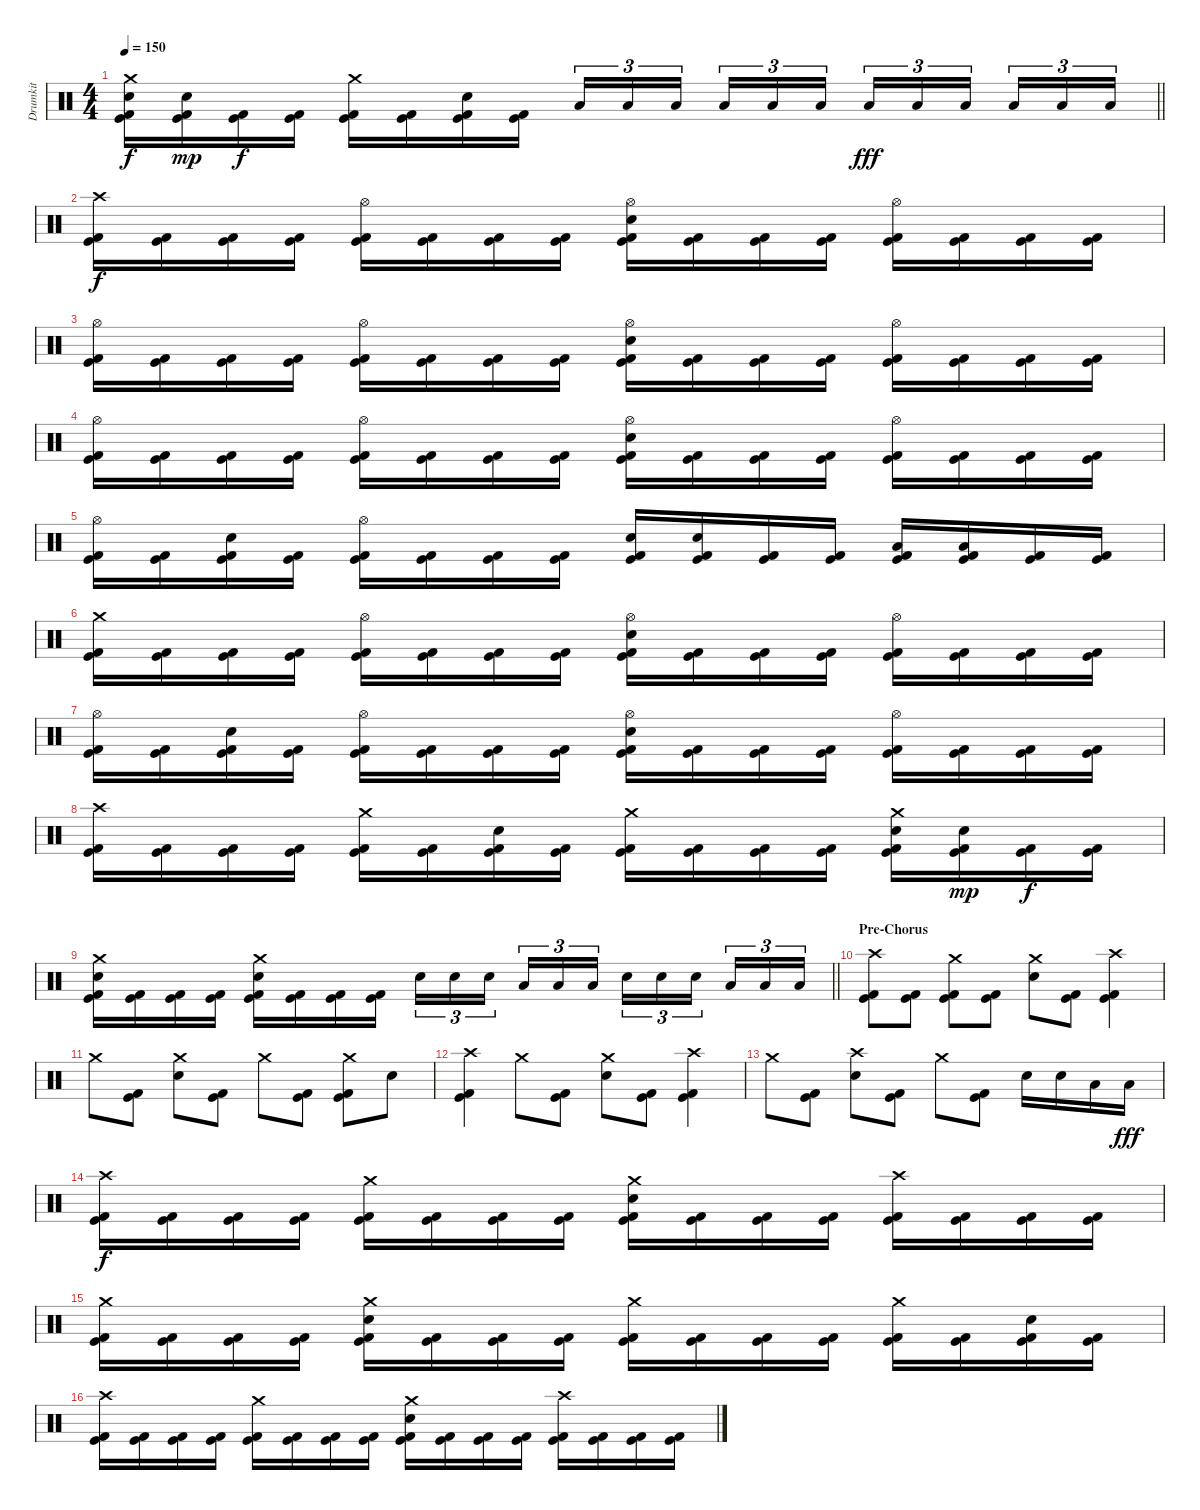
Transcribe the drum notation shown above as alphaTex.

\track ("Drumkit" "Drumkit") {instrument percussion}
\staff {score}
\articulation defaults
\ts (4 4)
\tempo 150
\clef neutral
\barLineRight lightlight
\ks c
("Crash medium (hit)" "Electric Snare (hit)" "Kick (hit)" "Kick (hit) 2").16{dy f} ("Electric Snare (hit)" "Kick (hit)" "Kick (hit) 2").16{dy mp} ("Kick (hit)" "Kick (hit) 2").16{dy f} ("Kick (hit)" "Kick (hit) 2").16 ("Crash medium (hit)" "Kick (hit)" "Kick (hit) 2").16 ("Kick (hit)" "Kick (hit) 2").16 ("Electric Snare (hit)" "Kick (hit)" "Kick (hit) 2").16 ("Kick (hit)" "Kick (hit) 2").16 "Low Tom (hit)".16{tu (3 2)} "Low Tom (hit)".16{tu (3 2)} "Low Tom (hit)".16{tu (3 2) beam splitsecondary} "Low Tom (hit)".16{tu (3 2)} "Low Tom (hit)".16{tu (3 2)} "Low Tom (hit)".16{tu (3 2)} "Low Floor Tom (hit)".16{tu (3 2) dy fff} "Low Floor Tom (hit)".16{tu (3 2)} "Low Floor Tom (hit)".16{tu (3 2) beam splitsecondary} "Low Floor Tom (hit)".16{tu (3 2)} "Low Floor Tom (hit)".16{tu (3 2)} "Low Floor Tom (hit)".16{tu (3 2)} |
("Crash high (hit)" "Kick (hit)" "Kick (hit) 2").16{dy f} ("Kick (hit)" "Kick (hit) 2").16 ("Kick (hit)" "Kick (hit) 2").16 ("Kick (hit)" "Kick (hit) 2").16 ("Hi-Hat (open)" "Kick (hit)" "Kick (hit) 2").16 ("Kick (hit)" "Kick (hit) 2").16 ("Kick (hit)" "Kick (hit) 2").16 ("Kick (hit)" "Kick (hit) 2").16 ("Hi-Hat (open)" "Electric Snare (hit)" "Kick (hit)" "Kick (hit) 2").16 ("Kick (hit)" "Kick (hit) 2").16 ("Kick (hit)" "Kick (hit) 2").16 ("Kick (hit)" "Kick (hit) 2").16 ("Hi-Hat (open)" "Kick (hit)" "Kick (hit) 2").16 ("Kick (hit)" "Kick (hit) 2").16 ("Kick (hit)" "Kick (hit) 2").16 ("Kick (hit)" "Kick (hit) 2").16 |
("Hi-Hat (open)" "Kick (hit)" "Kick (hit) 2").16 ("Kick (hit)" "Kick (hit) 2").16 ("Kick (hit)" "Kick (hit) 2").16 ("Kick (hit)" "Kick (hit) 2").16 ("Hi-Hat (open)" "Kick (hit)" "Kick (hit) 2").16 ("Kick (hit)" "Kick (hit) 2").16 ("Kick (hit)" "Kick (hit) 2").16 ("Kick (hit)" "Kick (hit) 2").16 ("Hi-Hat (open)" "Electric Snare (hit)" "Kick (hit)" "Kick (hit) 2").16 ("Kick (hit)" "Kick (hit) 2").16 ("Kick (hit)" "Kick (hit) 2").16 ("Kick (hit)" "Kick (hit) 2").16 ("Hi-Hat (open)" "Kick (hit)" "Kick (hit) 2").16 ("Kick (hit)" "Kick (hit) 2").16 ("Kick (hit)" "Kick (hit) 2").16 ("Kick (hit)" "Kick (hit) 2").16 |
("Hi-Hat (open)" "Kick (hit)" "Kick (hit) 2").16 ("Kick (hit)" "Kick (hit) 2").16 ("Kick (hit)" "Kick (hit) 2").16 ("Kick (hit)" "Kick (hit) 2").16 ("Hi-Hat (open)" "Kick (hit)" "Kick (hit) 2").16 ("Kick (hit)" "Kick (hit) 2").16 ("Kick (hit)" "Kick (hit) 2").16 ("Kick (hit)" "Kick (hit) 2").16 ("Hi-Hat (open)" "Electric Snare (hit)" "Kick (hit)" "Kick (hit) 2").16 ("Kick (hit)" "Kick (hit) 2").16 ("Kick (hit)" "Kick (hit) 2").16 ("Kick (hit)" "Kick (hit) 2").16 ("Hi-Hat (open)" "Kick (hit)" "Kick (hit) 2").16 ("Kick (hit)" "Kick (hit) 2").16 ("Kick (hit)" "Kick (hit) 2").16 ("Kick (hit)" "Kick (hit) 2").16 |
("Hi-Hat (open)" "Kick (hit)" "Kick (hit) 2").16 ("Kick (hit)" "Kick (hit) 2").16 ("Electric Snare (hit)" "Kick (hit)" "Kick (hit) 2").16 ("Kick (hit)" "Kick (hit) 2").16 ("Hi-Hat (open)" "Kick (hit)" "Kick (hit) 2").16 ("Kick (hit)" "Kick (hit) 2").16 ("Kick (hit)" "Kick (hit) 2").16 ("Kick (hit)" "Kick (hit) 2").16 ("Electric Snare (hit)" "Kick (hit)" "Kick (hit) 2").16 ("Electric Snare (hit)" "Kick (hit)" "Kick (hit) 2").16 ("Kick (hit)" "Kick (hit) 2").16 ("Kick (hit)" "Kick (hit) 2").16 ("Low Tom (hit)" "Kick (hit)" "Kick (hit) 2").16 ("Low Tom (hit)" "Kick (hit)" "Kick (hit) 2").16 ("Kick (hit)" "Kick (hit) 2").16 ("Kick (hit)" "Kick (hit) 2").16 |
("Crash medium (hit)" "Kick (hit)" "Kick (hit) 2").16 ("Kick (hit)" "Kick (hit) 2").16 ("Kick (hit)" "Kick (hit) 2").16 ("Kick (hit)" "Kick (hit) 2").16 ("Hi-Hat (open)" "Kick (hit)" "Kick (hit) 2").16 ("Kick (hit)" "Kick (hit) 2").16 ("Kick (hit)" "Kick (hit) 2").16 ("Kick (hit)" "Kick (hit) 2").16 ("Hi-Hat (open)" "Electric Snare (hit)" "Kick (hit)" "Kick (hit) 2").16 ("Kick (hit)" "Kick (hit) 2").16 ("Kick (hit)" "Kick (hit) 2").16 ("Kick (hit)" "Kick (hit) 2").16 ("Hi-Hat (open)" "Kick (hit)" "Kick (hit) 2").16 ("Kick (hit)" "Kick (hit) 2").16 ("Kick (hit)" "Kick (hit) 2").16 ("Kick (hit)" "Kick (hit) 2").16 |
("Hi-Hat (open)" "Kick (hit)" "Kick (hit) 2").16 ("Kick (hit)" "Kick (hit) 2").16 ("Electric Snare (hit)" "Kick (hit)" "Kick (hit) 2").16 ("Kick (hit)" "Kick (hit) 2").16 ("Hi-Hat (open)" "Kick (hit)" "Kick (hit) 2").16 ("Kick (hit)" "Kick (hit) 2").16 ("Kick (hit)" "Kick (hit) 2").16 ("Kick (hit)" "Kick (hit) 2").16 ("Hi-Hat (open)" "Electric Snare (hit)" "Kick (hit)" "Kick (hit) 2").16 ("Kick (hit)" "Kick (hit) 2").16 ("Kick (hit)" "Kick (hit) 2").16 ("Kick (hit)" "Kick (hit) 2").16 ("Hi-Hat (open)" "Kick (hit)" "Kick (hit) 2").16 ("Kick (hit)" "Kick (hit) 2").16 ("Kick (hit)" "Kick (hit) 2").16 ("Kick (hit)" "Kick (hit) 2").16 |
("Crash high (hit)" "Kick (hit)" "Kick (hit) 2").16 ("Kick (hit)" "Kick (hit) 2").16 ("Kick (hit)" "Kick (hit) 2").16 ("Kick (hit)" "Kick (hit) 2").16 ("Crash medium (hit)" "Kick (hit)" "Kick (hit) 2").16 ("Kick (hit)" "Kick (hit) 2").16 ("Electric Snare (hit)" "Kick (hit)" "Kick (hit) 2").16 ("Kick (hit)" "Kick (hit) 2").16 ("Crash medium (hit)" "Kick (hit)" "Kick (hit) 2").16 ("Kick (hit)" "Kick (hit) 2").16 ("Kick (hit)" "Kick (hit) 2").16 ("Kick (hit)" "Kick (hit) 2").16 ("Crash medium (hit)" "Electric Snare (hit)" "Kick (hit)" "Kick (hit) 2").16 ("Electric Snare (hit)" "Kick (hit)" "Kick (hit) 2").16{dy mp} ("Kick (hit)" "Kick (hit) 2").16{dy f} ("Kick (hit)" "Kick (hit) 2").16 |
\barLineRight lightlight
("Crash medium (hit)" "Electric Snare (hit)" "Kick (hit)" "Kick (hit) 2").16 ("Kick (hit)" "Kick (hit) 2").16 ("Kick (hit)" "Kick (hit) 2").16 ("Kick (hit)" "Kick (hit) 2").16 ("Crash medium (hit)" "Electric Snare (hit)" "Kick (hit)" "Kick (hit) 2").16 ("Kick (hit)" "Kick (hit) 2").16 ("Kick (hit)" "Kick (hit) 2").16 ("Kick (hit)" "Kick (hit) 2").16 "Electric Snare (hit)".16{tu (3 2)} "Electric Snare (hit)".16{tu (3 2)} "Electric Snare (hit)".16{tu (3 2) beam splitsecondary} "Low Tom (hit)".16{tu (3 2)} "Low Tom (hit)".16{tu (3 2)} "Low Tom (hit)".16{tu (3 2)} "Electric Snare (hit)".16{tu (3 2)} "Electric Snare (hit)".16{tu (3 2)} "Electric Snare (hit)".16{tu (3 2) beam splitsecondary} "Low Tom (hit)".16{tu (3 2)} "Low Tom (hit)".16{tu (3 2)} "Low Tom (hit)".16{tu (3 2)} |
\section ("" "Pre-Chorus")
("Crash high (hit)" "Kick (hit)" "Kick (hit) 2").8 ("Kick (hit)" "Kick (hit) 2").8 ("Crash medium (hit)" "Kick (hit)" "Kick (hit) 2").8 ("Kick (hit)" "Kick (hit) 2").8 ("Crash medium (hit)" "Electric Snare (hit)").8 ("Kick (hit)" "Kick (hit) 2").8 ("Crash high (hit)" "Kick (hit)" "Kick (hit) 2").4 |
"Crash medium (hit)".8 ("Kick (hit)" "Kick (hit) 2").8 ("Crash medium (hit)" "Electric Snare (hit)").8 ("Kick (hit)" "Kick (hit) 2").8 "Crash medium (hit)".8 ("Kick (hit)" "Kick (hit) 2").8 ("Crash medium (hit)" "Kick (hit)" "Kick (hit) 2").8 "Electric Snare (hit)".8 |
("Crash high (hit)" "Kick (hit)" "Kick (hit) 2").4 "Crash medium (hit)".8 ("Kick (hit)" "Kick (hit) 2").8 ("Crash medium (hit)" "Electric Snare (hit)").8 ("Kick (hit)" "Kick (hit) 2").8 ("Crash high (hit)" "Kick (hit)" "Kick (hit) 2").4 |
"Crash medium (hit)".8 ("Kick (hit)" "Kick (hit) 2").8 ("Crash high (hit)" "Electric Snare (hit)").8 ("Kick (hit)" "Kick (hit) 2").8 "Crash medium (hit)".8 ("Kick (hit)" "Kick (hit) 2").8 "Electric Snare (hit)".16 "Electric Snare (hit)".16 "Low Tom (hit)".16 "Low Floor Tom (hit)".16{dy fff} |
("Crash high (hit)" "Kick (hit)" "Kick (hit) 2").16{dy f} ("Kick (hit)" "Kick (hit) 2").16 ("Kick (hit)" "Kick (hit) 2").16 ("Kick (hit)" "Kick (hit) 2").16 ("Crash medium (hit)" "Kick (hit)" "Kick (hit) 2").16 ("Kick (hit)" "Kick (hit) 2").16 ("Kick (hit)" "Kick (hit) 2").16 ("Kick (hit)" "Kick (hit) 2").16 ("Crash medium (hit)" "Electric Snare (hit)" "Kick (hit)" "Kick (hit) 2").16 ("Kick (hit)" "Kick (hit) 2").16 ("Kick (hit)" "Kick (hit) 2").16 ("Kick (hit)" "Kick (hit) 2").16 ("Crash high (hit)" "Kick (hit)" "Kick (hit) 2").16 ("Kick (hit)" "Kick (hit) 2").16 ("Kick (hit)" "Kick (hit) 2").16 ("Kick (hit)" "Kick (hit) 2").16 |
("Crash medium (hit)" "Kick (hit)" "Kick (hit) 2").16 ("Kick (hit)" "Kick (hit) 2").16 ("Kick (hit)" "Kick (hit) 2").16 ("Kick (hit)" "Kick (hit) 2").16 ("Crash medium (hit)" "Electric Snare (hit)" "Kick (hit)" "Kick (hit) 2").16 ("Kick (hit)" "Kick (hit) 2").16 ("Kick (hit)" "Kick (hit) 2").16 ("Kick (hit)" "Kick (hit) 2").16 ("Crash medium (hit)" "Kick (hit)" "Kick (hit) 2").16 ("Kick (hit)" "Kick (hit) 2").16 ("Kick (hit)" "Kick (hit) 2").16 ("Kick (hit)" "Kick (hit) 2").16 ("Crash medium (hit)" "Kick (hit)" "Kick (hit) 2").16 ("Kick (hit)" "Kick (hit) 2").16 ("Electric Snare (hit)" "Kick (hit)" "Kick (hit) 2").16 ("Kick (hit)" "Kick (hit) 2").16 |
("Crash high (hit)" "Kick (hit)" "Kick (hit) 2").16 ("Kick (hit)" "Kick (hit) 2").16 ("Kick (hit)" "Kick (hit) 2").16 ("Kick (hit)" "Kick (hit) 2").16 ("Crash medium (hit)" "Kick (hit)" "Kick (hit) 2").16 ("Kick (hit)" "Kick (hit) 2").16 ("Kick (hit)" "Kick (hit) 2").16 ("Kick (hit)" "Kick (hit) 2").16 ("Crash medium (hit)" "Electric Snare (hit)" "Kick (hit)" "Kick (hit) 2").16 ("Kick (hit)" "Kick (hit) 2").16 ("Kick (hit)" "Kick (hit) 2").16 ("Kick (hit)" "Kick (hit) 2").16 ("Crash high (hit)" "Kick (hit)" "Kick (hit) 2").16 ("Kick (hit)" "Kick (hit) 2").16 ("Kick (hit)" "Kick (hit) 2").16 ("Kick (hit)" "Kick (hit) 2").16
